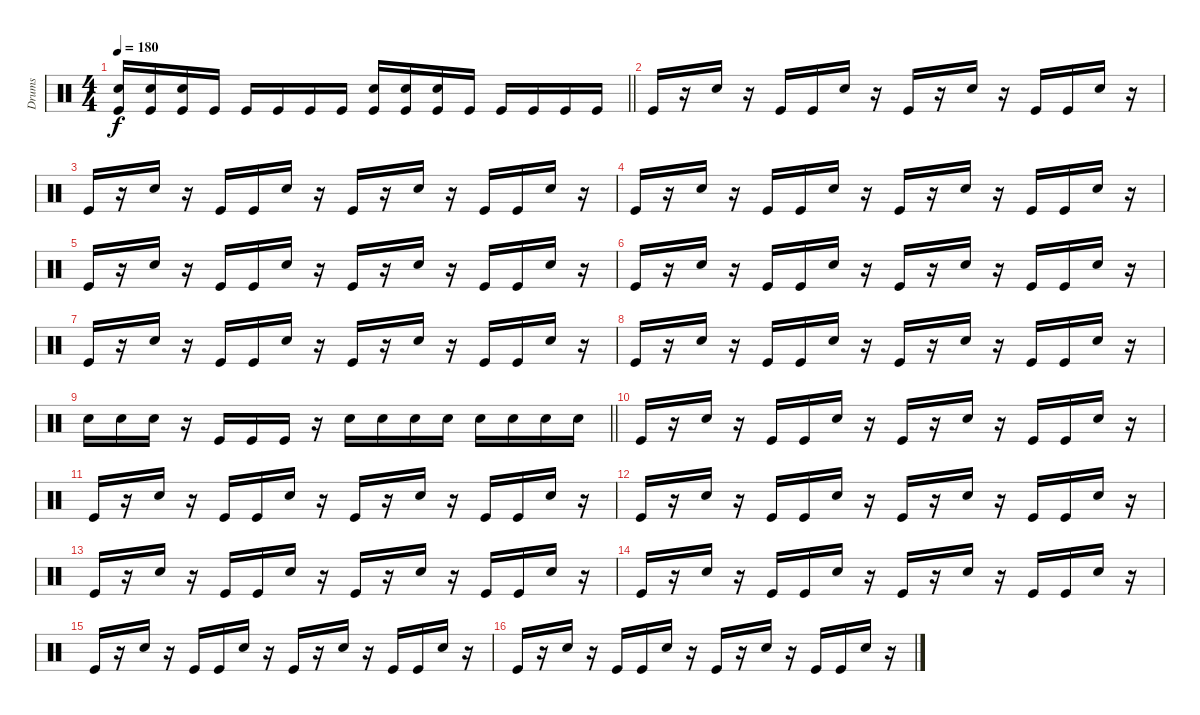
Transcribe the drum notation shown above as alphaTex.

\track ("Drums" "Drums") {instrument percussion}
\staff
\articulation defaults
\ts (4 4)
\tempo 180
\clef neutral
\barLineRight lightlight
\ks c
("Snare (hit) 2" "Kick (hit)").16{dy f} ("Snare (hit) 2" "Kick (hit)").16 ("Snare (hit) 2" "Kick (hit)").16 "Kick (hit)".16 "Kick (hit)".16 "Kick (hit)".16 "Kick (hit)".16 "Kick (hit)".16 ("Snare (hit) 2" "Kick (hit)").16 ("Snare (hit) 2" "Kick (hit)").16 ("Snare (hit) 2" "Kick (hit)").16 "Kick (hit)".16 "Kick (hit)".16 "Kick (hit)".16 "Kick (hit)".16 "Kick (hit)".16 |
\section ("" "")
"Kick (hit)".16 r.16 "Snare (hit) 2".16 r.16 "Kick (hit)".16 "Kick (hit)".16 "Snare (hit) 2".16 r.16 "Kick (hit)".16 r.16 "Snare (hit) 2".16 r.16 "Kick (hit)".16 "Kick (hit)".16 "Snare (hit) 2".16 r.16 |
"Kick (hit)".16 r.16 "Snare (hit) 2".16 r.16 "Kick (hit)".16 "Kick (hit)".16 "Snare (hit) 2".16 r.16 "Kick (hit)".16 r.16 "Snare (hit) 2".16 r.16 "Kick (hit)".16 "Kick (hit)".16 "Snare (hit) 2".16 r.16 |
"Kick (hit)".16 r.16 "Snare (hit) 2".16 r.16 "Kick (hit)".16 "Kick (hit)".16 "Snare (hit) 2".16 r.16 "Kick (hit)".16 r.16 "Snare (hit) 2".16 r.16 "Kick (hit)".16 "Kick (hit)".16 "Snare (hit) 2".16 r.16 |
"Kick (hit)".16 r.16 "Snare (hit) 2".16 r.16 "Kick (hit)".16 "Kick (hit)".16 "Snare (hit) 2".16 r.16 "Kick (hit)".16 r.16 "Snare (hit) 2".16 r.16 "Kick (hit)".16 "Kick (hit)".16 "Snare (hit) 2".16 r.16 |
"Kick (hit)".16 r.16 "Snare (hit) 2".16 r.16 "Kick (hit)".16 "Kick (hit)".16 "Snare (hit) 2".16 r.16 "Kick (hit)".16 r.16 "Snare (hit) 2".16 r.16 "Kick (hit)".16 "Kick (hit)".16 "Snare (hit) 2".16 r.16 |
"Kick (hit)".16 r.16 "Snare (hit) 2".16 r.16 "Kick (hit)".16 "Kick (hit)".16 "Snare (hit) 2".16 r.16 "Kick (hit)".16 r.16 "Snare (hit) 2".16 r.16 "Kick (hit)".16 "Kick (hit)".16 "Snare (hit) 2".16 r.16 |
"Kick (hit)".16 r.16 "Snare (hit) 2".16 r.16 "Kick (hit)".16 "Kick (hit)".16 "Snare (hit) 2".16 r.16 "Kick (hit)".16 r.16 "Snare (hit) 2".16 r.16 "Kick (hit)".16 "Kick (hit)".16 "Snare (hit) 2".16 r.16 |
\barLineRight lightlight "Snare (hit) 2".16 "Snare (hit) 2".16 "Snare (hit) 2".16
r.16 "Kick (hit)".16 "Kick (hit)".16 "Kick (hit)".16 r.16 "Snare (hit) 2".16 "Snare (hit) 2".16 "Snare (hit) 2".16 "Snare (hit) 2".16 "Snare (hit) 2".16 "Snare (hit) 2".16 "Snare (hit) 2".16 "Snare (hit) 2".16 |
\section ("" "")
"Kick (hit)".16 r.16 "Snare (hit) 2".16 r.16 "Kick (hit)".16 "Kick (hit)".16 "Snare (hit) 2".16 r.16 "Kick (hit)".16 r.16 "Snare (hit) 2".16 r.16 "Kick (hit)".16 "Kick (hit)".16 "Snare (hit) 2".16 r.16 |
"Kick (hit)".16 r.16 "Snare (hit) 2".16 r.16 "Kick (hit)".16 "Kick (hit)".16 "Snare (hit) 2".16 r.16 "Kick (hit)".16 r.16 "Snare (hit) 2".16 r.16 "Kick (hit)".16 "Kick (hit)".16 "Snare (hit) 2".16 r.16 |
"Kick (hit)".16 r.16 "Snare (hit) 2".16 r.16 "Kick (hit)".16 "Kick (hit)".16 "Snare (hit) 2".16 r.16 "Kick (hit)".16 r.16 "Snare (hit) 2".16 r.16 "Kick (hit)".16 "Kick (hit)".16 "Snare (hit) 2".16 r.16 |
"Kick (hit)".16 r.16 "Snare (hit) 2".16 r.16 "Kick (hit)".16 "Kick (hit)".16 "Snare (hit) 2".16 r.16 "Kick (hit)".16 r.16 "Snare (hit) 2".16 r.16 "Kick (hit)".16 "Kick (hit)".16 "Snare (hit) 2".16 r.16 |
"Kick (hit)".16 r.16 "Snare (hit) 2".16 r.16 "Kick (hit)".16 "Kick (hit)".16 "Snare (hit) 2".16 r.16 "Kick (hit)".16 r.16 "Snare (hit) 2".16 r.16 "Kick (hit)".16 "Kick (hit)".16 "Snare (hit) 2".16 r.16 |
"Kick (hit)".16 r.16 "Snare (hit) 2".16 r.16 "Kick (hit)".16 "Kick (hit)".16 "Snare (hit) 2".16 r.16 "Kick (hit)".16 r.16 "Snare (hit) 2".16 r.16 "Kick (hit)".16 "Kick (hit)".16 "Snare (hit) 2".16 r.16 |
"Kick (hit)".16 r.16 "Snare (hit) 2".16 r.16 "Kick (hit)".16 "Kick (hit)".16 "Snare (hit) 2".16 r.16 "Kick (hit)".16 r.16 "Snare (hit) 2".16 r.16 "Kick (hit)".16 "Kick (hit)".16 "Snare (hit) 2".16 r.16
